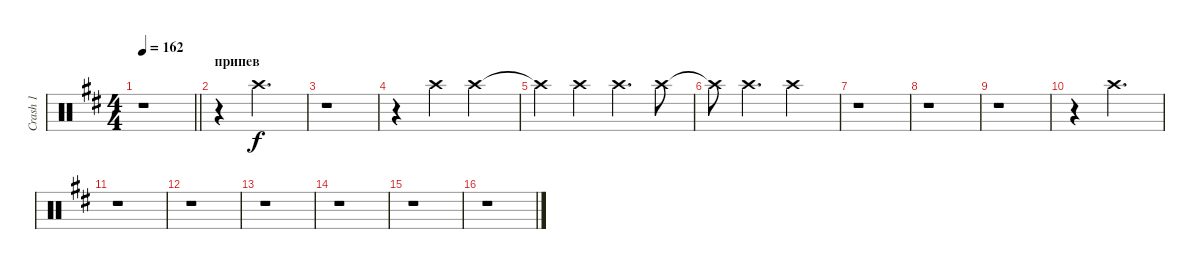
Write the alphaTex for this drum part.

\track ("Crash 1" "Crash 1") {instrument percussion}
\staff {score}
\articulation defaults
\ts (4 4)
\tempo 162
\clef neutral
\barLineRight lightlight
\ks bminor
r.1{dy f} |
\section ("" "припев")
r.4 "Crash high (hit)".2{d} |
r.1 |
r.4 "Crash high (hit)".4 "Crash high (hit)".2 |
"Crash high (hit)"{t}.4 "Crash high (hit)".4 "Crash high (hit)".4{d} "Crash high (hit)".8 |
"Crash high (hit)"{t}.8 "Crash high (hit)".4{d} "Crash high (hit)".2 |
r.1 |
r.1 |
r.1 |
r.4 "Crash high (hit)".2{d} |
r.1 |
r.1 |
r.1 |
r.1 |
r.1 |
r.1
